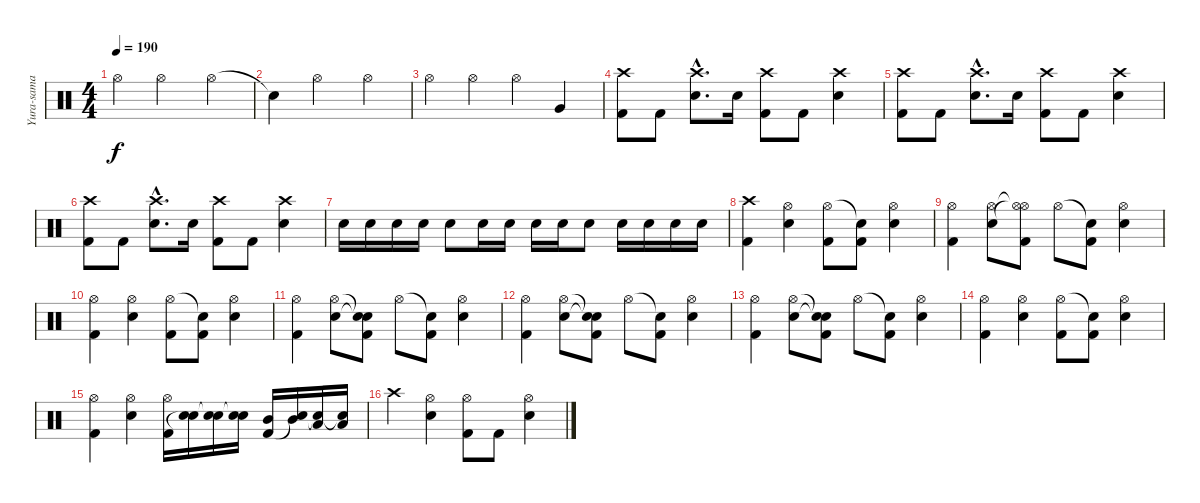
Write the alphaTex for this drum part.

\track ("Yura-sama" "Yura-sama") {instrument percussion}
\staff {score}
\articulation defaults
\ts (4 4)
\tempo 190
\clef neutral
\ks c "Hi-Hat (open)"{t}.4{dy f} "Hi-Hat (open)".2 "Hi-Hat (open)".4
|
"Snare (hit)"{t}.4 "Hi-Hat (open)".2 "Hi-Hat (open)".4 |
"Hi-Hat (open)".4 "Hi-Hat (open)".4 "Hi-Hat (open)".4 "Very Low Tom (hit)".4 |
("Crash high (hit)" "Kick (hit) 2").8 "Kick (hit) 2".8 ("Crash high (hit)"{hac} "Electric Snare (hit)"{hac}).8{d} "Electric Snare (hit)".16 ("Crash high (hit)" "Kick (hit) 2").8 "Kick (hit) 2".8 ("Crash high (hit)" "Electric Snare (hit)").4 |
("Crash high (hit)" "Kick (hit) 2").8 "Kick (hit) 2".8 ("Crash high (hit)"{hac} "Electric Snare (hit)"{hac}).8{d} "Electric Snare (hit)".16 ("Crash high (hit)" "Kick (hit) 2").8 "Kick (hit) 2".8 ("Crash high (hit)" "Electric Snare (hit)").4 |
("Crash high (hit)" "Kick (hit) 2").8 "Kick (hit) 2".8 ("Crash high (hit)"{hac} "Electric Snare (hit)"{hac}).8{d} "Electric Snare (hit)".16 ("Crash high (hit)" "Kick (hit) 2").8 "Kick (hit) 2".8 ("Crash high (hit)" "Electric Snare (hit)").4 |
"Electric Snare (hit)".16 "Electric Snare (hit)".16 "Electric Snare (hit)".16 "Electric Snare (hit)".16 "Electric Snare (hit)".8 "Electric Snare (hit)".16 "Electric Snare (hit)".16 "Electric Snare (hit)".16 "Electric Snare (hit)".16 "Electric Snare (hit)".8 "Electric Snare (hit)".16 "Electric Snare (hit)".16 "Electric Snare (hit)".16 "Electric Snare (hit)".16 |
("Crash high (hit)" "Kick (hit) 2").4 ("Hi-Hat (open)" "Electric Snare (hit)").4 ("Hi-Hat (open)" "Kick (hit) 2").8 ("Snare (hit)"{t} "Kick (hit) 2").8 ("Hi-Hat (open)" "Electric Snare (hit)").4 |
("Hi-Hat (open)" "Kick (hit) 2").4 ("Hi-Hat (open)" "Electric Snare (hit)").8 ("Hi-Hat (open)"{t} "Hi-Hat (open)"{t} "Kick (hit) 2").8 "Hi-Hat (open)".8 ("Snare (hit)"{t} "Kick (hit) 2").8 ("Hi-Hat (open)" "Electric Snare (hit)").4 |
("Hi-Hat (open)" "Kick (hit) 2").4 ("Hi-Hat (open)" "Electric Snare (hit)").4 ("Hi-Hat (open)" "Kick (hit) 2").8 ("Snare (hit)"{t} "Kick (hit) 2").8 ("Hi-Hat (open)" "Electric Snare (hit)").4 |
("Hi-Hat (open)" "Kick (hit) 2").4 ("Hi-Hat (open)" "Electric Snare (hit)").8 ("Snare (hit)"{t} "Snare (hit)"{t} "Kick (hit) 2").8 "Hi-Hat (open)".8 ("Snare (hit)"{t} "Kick (hit) 2").8 ("Hi-Hat (open)" "Electric Snare (hit)").4 |
("Hi-Hat (open)" "Kick (hit) 2").4 ("Hi-Hat (open)" "Electric Snare (hit)").8 ("Snare (hit)"{t} "Snare (hit)"{t} "Kick (hit) 2").8 "Hi-Hat (open)".8 ("Snare (hit)"{t} "Kick (hit) 2").8 ("Hi-Hat (open)" "Electric Snare (hit)").4 |
("Hi-Hat (open)" "Kick (hit) 2").4 ("Hi-Hat (open)" "Electric Snare (hit)").8 ("Snare (hit)"{t} "Snare (hit)"{t} "Kick (hit) 2").8 "Hi-Hat (open)".8 ("Snare (hit)"{t} "Kick (hit) 2").8 ("Hi-Hat (open)" "Electric Snare (hit)").4 |
("Hi-Hat (open)" "Kick (hit) 2").4 ("Hi-Hat (open)" "Electric Snare (hit)").4 ("Hi-Hat (open)" "Kick (hit) 2").8 ("Snare (hit)"{t} "Kick (hit) 2").8 ("Hi-Hat (open)" "Electric Snare (hit)").4 |
("Hi-Hat (open)" "Kick (hit) 2").4 ("Hi-Hat (open)" "Electric Snare (hit)").4 ("Hi-Hat (open)" "Kick (hit) 2").16 ("Electric Snare (hit)" "Snare (hit)"{t}).16 ("Electric Snare (hit)" "Snare (hit)"{t}).16 ("Electric Snare (hit)" "Snare (hit)"{t}).16 ("Mid Tom (hit)" "Kick (hit) 2").16 ("Mid Tom (hit)" "Snare (hit)"{t}).16 ("Low Tom (hit)" "Snare (hit)"{t}).16 ("Low Tom (hit)" "Snare (hit)"{t}).16 |
"Crash high (hit)".4 ("Hi-Hat (open)" "Electric Snare (hit)").4 ("Hi-Hat (open)" "Kick (hit) 2").8 "Kick (hit) 2".8 ("Hi-Hat (open)" "Electric Snare (hit)").4
